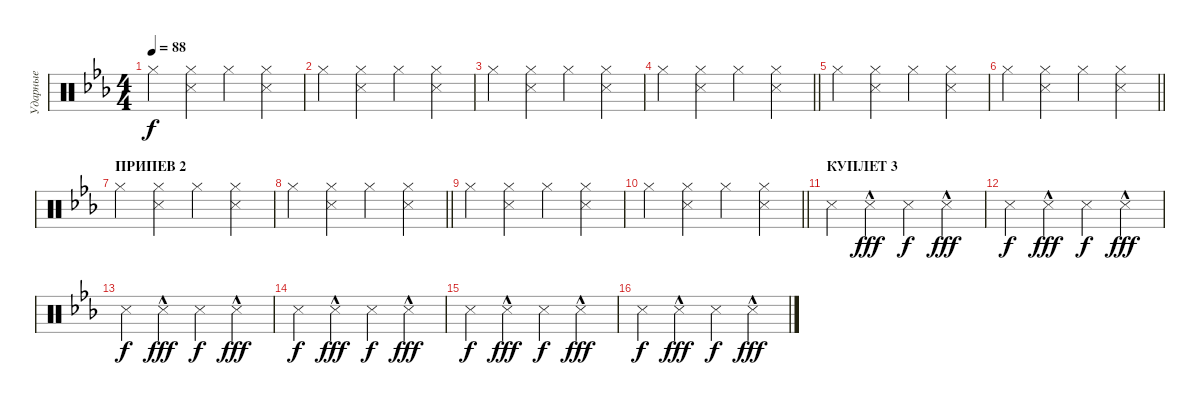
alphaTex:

\track ("Ударные" "Ударные") {instrument percussion}
\staff {score}
\articulation defaults
\ts (4 4)
\tempo 88
\clef neutral
\ks cminor "Hi-Hat (closed)".4{dy f}
("Hi-Hat (closed)" "Snare (side stick) 3").4 "Hi-Hat (closed)".4 ("Hi-Hat (closed)" "Snare (side stick) 3").4 |
"Hi-Hat (closed)".4 ("Hi-Hat (closed)" "Snare (side stick) 3").4 "Hi-Hat (closed)".4 ("Hi-Hat (closed)" "Snare (side stick) 3").4 |
"Hi-Hat (closed)".4 ("Hi-Hat (closed)" "Snare (side stick) 3").4 "Hi-Hat (closed)".4 ("Hi-Hat (closed)" "Snare (side stick) 3").4 |
\barLineRight lightlight "Hi-Hat (closed)".4
("Hi-Hat (closed)" "Snare (side stick) 3").4 "Hi-Hat (closed)".4 ("Hi-Hat (closed)" "Snare (side stick) 3").4 |
"Hi-Hat (closed)".4 ("Hi-Hat (closed)" "Snare (side stick) 3").4 "Hi-Hat (closed)".4 ("Hi-Hat (closed)" "Snare (side stick) 3").4 |
\barLineRight lightlight "Hi-Hat (closed)".4
("Hi-Hat (closed)" "Snare (side stick) 3").4 "Hi-Hat (closed)".4 ("Hi-Hat (closed)" "Snare (side stick) 3").4 |
\section ("" "ПРИПЕВ 2")
"Hi-Hat (closed)".4 ("Hi-Hat (closed)" "Snare (side stick) 3").4 "Hi-Hat (closed)".4 ("Hi-Hat (closed)" "Snare (side stick) 3").4 |
\barLineRight lightlight "Hi-Hat (closed)".4
("Hi-Hat (closed)" "Snare (side stick) 3").4 "Hi-Hat (closed)".4 ("Hi-Hat (closed)" "Snare (side stick) 3").4 |
"Hi-Hat (closed)".4 ("Hi-Hat (closed)" "Snare (side stick) 3").4 "Hi-Hat (closed)".4 ("Hi-Hat (closed)" "Snare (side stick) 3").4 |
\barLineRight lightlight "Hi-Hat (closed)".4
("Hi-Hat (closed)" "Snare (side stick) 3").4 "Hi-Hat (closed)".4 ("Hi-Hat (closed)" "Snare (side stick) 3").4 |
\section ("" "КУПЛЕТ 3")
"Snare (side stick) 3".4 "Snare (side stick) 3"{hac}.4{dy fff} "Snare (side stick) 3".4{dy f} "Snare (side stick) 3"{hac}.4{dy fff} |
"Snare (side stick) 3".4{dy f} "Snare (side stick) 3"{hac}.4{dy fff} "Snare (side stick) 3".4{dy f} "Snare (side stick) 3"{hac}.4{dy fff} |
"Snare (side stick) 3".4{dy f} "Snare (side stick) 3"{hac}.4{dy fff} "Snare (side stick) 3".4{dy f} "Snare (side stick) 3"{hac}.4{dy fff} |
"Snare (side stick) 3".4{dy f} "Snare (side stick) 3"{hac}.4{dy fff} "Snare (side stick) 3".4{dy f} "Snare (side stick) 3"{hac}.4{dy fff} |
"Snare (side stick) 3".4{dy f} "Snare (side stick) 3"{hac}.4{dy fff} "Snare (side stick) 3".4{dy f} "Snare (side stick) 3"{hac}.4{dy fff} |
"Snare (side stick) 3".4{dy f} "Snare (side stick) 3"{hac}.4{dy fff} "Snare (side stick) 3".4{dy f} "Snare (side stick) 3"{hac}.4{dy fff}
